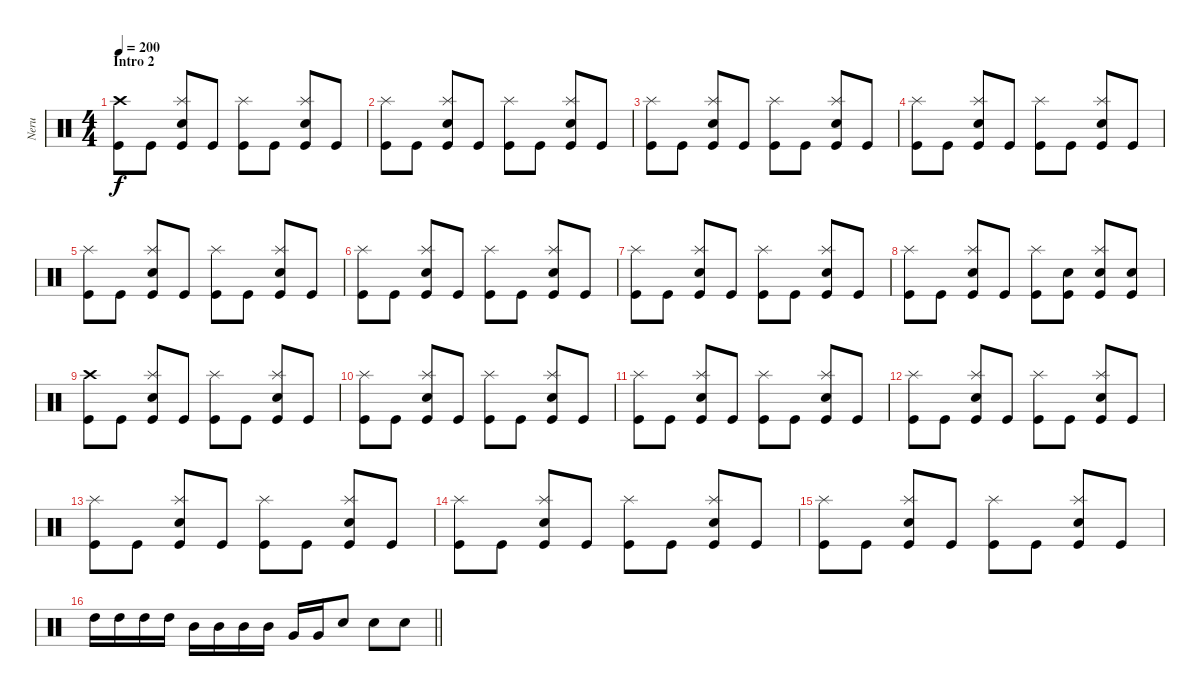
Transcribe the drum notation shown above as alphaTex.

\track ("Neru" "Neru") {instrument percussion}
\staff {score}
\articulation defaults
\ts (4 4)
\section ("" "Intro 2")
\tempo 200
\clef neutral
\ks c
("Crash high (hit)" "Kick (hit)").8{dy f} "Kick (hit)".8 ("Splash (hit)" "Electric Snare (hit)" "Kick (hit)").8 "Kick (hit)".8 ("Splash (hit)" "Kick (hit)").8 "Kick (hit)".8 ("Splash (hit)" "Electric Snare (hit)" "Kick (hit)").8 "Kick (hit)".8 |
("Splash (hit)" "Kick (hit)").8 "Kick (hit)".8 ("Splash (hit)" "Electric Snare (hit)" "Kick (hit)").8 "Kick (hit)".8 ("Splash (hit)" "Kick (hit)").8 "Kick (hit)".8 ("Splash (hit)" "Electric Snare (hit)" "Kick (hit)").8 "Kick (hit)".8 |
("Splash (hit)" "Kick (hit)").8 "Kick (hit)".8 ("Splash (hit)" "Electric Snare (hit)" "Kick (hit)").8 "Kick (hit)".8 ("Splash (hit)" "Kick (hit)").8 "Kick (hit)".8 ("Splash (hit)" "Electric Snare (hit)" "Kick (hit)").8 "Kick (hit)".8 |
("Splash (hit)" "Kick (hit)").8 "Kick (hit)".8 ("Splash (hit)" "Electric Snare (hit)" "Kick (hit)").8 "Kick (hit)".8 ("Splash (hit)" "Kick (hit)").8 "Kick (hit)".8 ("Splash (hit)" "Electric Snare (hit)" "Kick (hit)").8 "Kick (hit)".8 |
("Splash (hit)" "Kick (hit)").8 "Kick (hit)".8 ("Splash (hit)" "Electric Snare (hit)" "Kick (hit)").8 "Kick (hit)".8 ("Splash (hit)" "Kick (hit)").8 "Kick (hit)".8 ("Splash (hit)" "Electric Snare (hit)" "Kick (hit)").8 "Kick (hit)".8 |
("Splash (hit)" "Kick (hit)").8 "Kick (hit)".8 ("Splash (hit)" "Electric Snare (hit)" "Kick (hit)").8 "Kick (hit)".8 ("Splash (hit)" "Kick (hit)").8 "Kick (hit)".8 ("Splash (hit)" "Electric Snare (hit)" "Kick (hit)").8 "Kick (hit)".8 |
("Splash (hit)" "Kick (hit)").8 "Kick (hit)".8 ("Splash (hit)" "Electric Snare (hit)" "Kick (hit)").8 "Kick (hit)".8 ("Splash (hit)" "Kick (hit)").8 "Kick (hit)".8 ("Splash (hit)" "Electric Snare (hit)" "Kick (hit)").8 "Kick (hit)".8 |
("Splash (hit)" "Kick (hit)").8 "Kick (hit)".8 ("Splash (hit)" "Electric Snare (hit)" "Kick (hit)").8 "Kick (hit)".8 ("Splash (hit)" "Kick (hit)").8 ("Electric Snare (hit)" "Kick (hit)").8 ("Splash (hit)" "Electric Snare (hit)" "Kick (hit)").8 ("Electric Snare (hit)" "Kick (hit)").8 |
("Crash high (hit)" "Kick (hit)").8 "Kick (hit)".8 ("Splash (hit)" "Electric Snare (hit)" "Kick (hit)").8 "Kick (hit)".8 ("Splash (hit)" "Kick (hit)").8 "Kick (hit)".8 ("Splash (hit)" "Electric Snare (hit)" "Kick (hit)").8 "Kick (hit)".8 |
("Splash (hit)" "Kick (hit)").8 "Kick (hit)".8 ("Splash (hit)" "Electric Snare (hit)" "Kick (hit)").8 "Kick (hit)".8 ("Splash (hit)" "Kick (hit)").8 "Kick (hit)".8 ("Splash (hit)" "Electric Snare (hit)" "Kick (hit)").8 "Kick (hit)".8 |
("Splash (hit)" "Kick (hit)").8 "Kick (hit)".8 ("Splash (hit)" "Electric Snare (hit)" "Kick (hit)").8 "Kick (hit)".8 ("Splash (hit)" "Kick (hit)").8 "Kick (hit)".8 ("Splash (hit)" "Electric Snare (hit)" "Kick (hit)").8 "Kick (hit)".8 |
("Splash (hit)" "Kick (hit)").8 "Kick (hit)".8 ("Splash (hit)" "Electric Snare (hit)" "Kick (hit)").8 "Kick (hit)".8 ("Splash (hit)" "Kick (hit)").8 "Kick (hit)".8 ("Splash (hit)" "Electric Snare (hit)" "Kick (hit)").8 "Kick (hit)".8 |
("Splash (hit)" "Kick (hit)").8 "Kick (hit)".8 ("Splash (hit)" "Electric Snare (hit)" "Kick (hit)").8 "Kick (hit)".8 ("Splash (hit)" "Kick (hit)").8 "Kick (hit)".8 ("Splash (hit)" "Electric Snare (hit)" "Kick (hit)").8 "Kick (hit)".8 |
("Splash (hit)" "Kick (hit)").8 "Kick (hit)".8 ("Splash (hit)" "Electric Snare (hit)" "Kick (hit)").8 "Kick (hit)".8 ("Splash (hit)" "Kick (hit)").8 "Kick (hit)".8 ("Splash (hit)" "Electric Snare (hit)" "Kick (hit)").8 "Kick (hit)".8 |
("Splash (hit)" "Kick (hit)").8 "Kick (hit)".8 ("Splash (hit)" "Electric Snare (hit)" "Kick (hit)").8 "Kick (hit)".8 ("Splash (hit)" "Kick (hit)").8 "Kick (hit)".8 ("Splash (hit)" "Electric Snare (hit)" "Kick (hit)").8 "Kick (hit)".8 |
\barLineRight lightlight "High Tom (hit)".16 "High Tom (hit)".16 "High Tom (hit)".16 "High Tom (hit)".16 "Mid Tom (hit)".16 "Mid Tom (hit)".16 "Mid Tom (hit)".16 "Mid Tom (hit)".16 "Very Low Tom (hit)".16 "Very Low Tom (hit)".16 "Electric Snare (hit)".8 "Electric Snare (hit)".8 "Electric Snare (hit)".8
